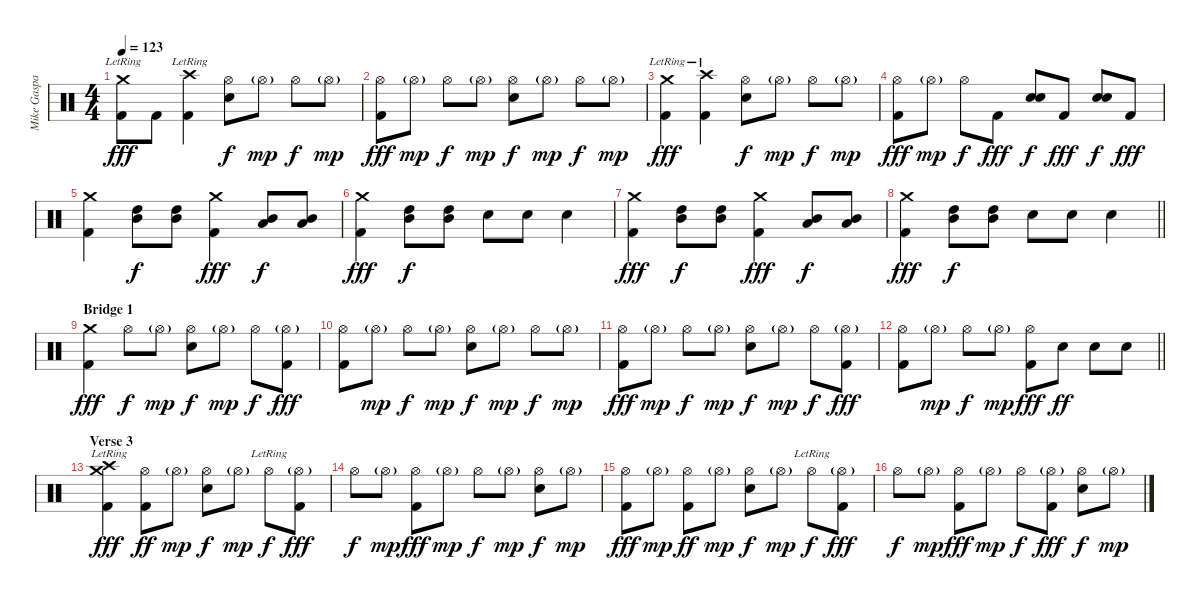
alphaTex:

\track ("Mike Gaspar (Drums)" "Mike Gaspa") {instrument percussion}
\staff {score}
\articulation defaults
\ts (4 4)
\tempo 123
\clef neutral
\ks c
("Crash medium (hit)"{lr} "Kick (hit) 2").8{dy fff} "Kick (hit) 2".8 ("Crash high (hit)"{lr} "Kick (hit) 2").4 ("Hi-Hat (open)" "Snare (hit) 2").8{dy f} "Hi-Hat (open)"{g}.8{dy mp} "Hi-Hat (open)".8{dy f} "Hi-Hat (open)"{g}.8{dy mp} |
("Hi-Hat (open)" "Kick (hit) 2").8{dy fff} "Hi-Hat (open)"{g}.8{dy mp} "Hi-Hat (open)".8{dy f} "Hi-Hat (open)"{g}.8{dy mp} ("Hi-Hat (open)" "Snare (hit) 2").8{dy f} "Hi-Hat (open)"{g}.8{dy mp} "Hi-Hat (open)".8{dy f} "Hi-Hat (open)"{g}.8{dy mp} |
("Crash medium (hit)"{lr} "Kick (hit) 2").4{dy fff} ("Crash high (hit)"{lr} "Kick (hit) 2").4 ("Hi-Hat (open)" "Snare (hit) 2").8{dy f} "Hi-Hat (open)"{g}.8{dy mp} "Hi-Hat (open)".8{dy f} "Hi-Hat (open)"{g}.8{dy mp} |
("Hi-Hat (open)" "Kick (hit) 2").8{dy fff} "Hi-Hat (open)"{g}.8{dy mp} "Hi-Hat (open)".8{dy f} "Kick (hit) 2".8{dy fff} ("Snare (hit) 2" "Snare (hit) 2").8{bd 30 dy f} "Kick (hit) 2".8{dy fff} ("Snare (hit) 2" "Snare (hit) 2").8{bd 30 dy f} "Kick (hit) 2".8{dy fff} |
("Crash medium (hit)" "Kick (hit) 2").4 ("High Tom (hit)" "Mid Tom (hit)").8{dy f} ("High Tom (hit)" "Mid Tom (hit)").8 ("Crash medium (hit)" "Kick (hit) 2").4{dy fff} ("Mid Tom (hit)" "Low Tom (hit)").8{dy f} ("Mid Tom (hit)" "Low Tom (hit)").8 |
("Crash medium (hit)" "Kick (hit) 2").4{dy fff} ("High Tom (hit)" "Mid Tom (hit)").8{dy f} ("High Tom (hit)" "Mid Tom (hit)").8 "Snare (hit) 2".8 "Snare (hit) 2".8 "Snare (hit) 2".4 |
("Crash medium (hit)" "Kick (hit) 2").4{dy fff} ("High Tom (hit)" "Mid Tom (hit)").8{dy f} ("High Tom (hit)" "Mid Tom (hit)").8 ("Crash medium (hit)" "Kick (hit) 2").4{dy fff} ("Mid Tom (hit)" "Low Tom (hit)").8{dy f} ("Mid Tom (hit)" "Low Tom (hit)").8 |
\barLineRight lightlight
("Crash medium (hit)" "Kick (hit) 2").4{dy fff} ("High Tom (hit)" "Mid Tom (hit)").8{dy f} ("High Tom (hit)" "Mid Tom (hit)").8 "Snare (hit) 2".8 "Snare (hit) 2".8 "Snare (hit) 2".4 |
\section ("" "Bridge 1")
("Crash medium (hit)" "Kick (hit) 2").4{dy fff} "Hi-Hat (open)".8{dy f} "Hi-Hat (open)"{g}.8{dy mp} ("Hi-Hat (open)" "Snare (hit) 2").8{dy f} "Hi-Hat (open)"{g}.8{dy mp} "Hi-Hat (open)".8{dy f} ("Hi-Hat (open)"{g} "Kick (hit) 2").8{dy fff} |
("Hi-Hat (open)" "Kick (hit) 2").8 "Hi-Hat (open)"{g}.8{dy mp} "Hi-Hat (open)".8{dy f} "Hi-Hat (open)"{g}.8{dy mp} ("Hi-Hat (open)" "Snare (hit) 2").8{dy f} "Hi-Hat (open)"{g}.8{dy mp} "Hi-Hat (open)".8{dy f} "Hi-Hat (open)"{g}.8{dy mp} |
("Hi-Hat (open)" "Kick (hit) 2").8{dy fff} "Hi-Hat (open)"{g}.8{dy mp} "Hi-Hat (open)".8{dy f} "Hi-Hat (open)"{g}.8{dy mp} ("Hi-Hat (open)" "Snare (hit) 2").8{dy f} "Hi-Hat (open)"{g}.8{dy mp} "Hi-Hat (open)".8{dy f} ("Hi-Hat (open)"{g} "Kick (hit) 2").8{dy fff} |
\barLineRight lightlight
("Hi-Hat (open)" "Kick (hit) 2").8 "Hi-Hat (open)"{g}.8{dy mp} "Hi-Hat (open)".8{dy f} "Hi-Hat (open)"{g}.8{dy mp} ("Hi-Hat (open)" "Kick (hit) 2").8{dy fff} "Snare (hit) 2".8{dy ff} "Snare (hit) 2".8 "Snare (hit) 2".8 |
\section ("" "Verse 3")
("Crash medium (hit)"{lr} "Crash high (hit)"{lr} "Kick (hit) 2").4{dy fff} ("Hi-Hat (open)" "Kick (hit) 2").8{dy ff} "Hi-Hat (open)"{g}.8{dy mp} ("Hi-Hat (open)" "Snare (hit) 2").8{dy f} "Hi-Hat (open)"{g}.8{dy mp} "Hi-Hat (open)"{lr}.8{dy f} ("Hi-Hat (open)"{g} "Kick (hit) 2").8{dy fff} |
"Hi-Hat (open)".8{dy f} "Hi-Hat (open)"{g}.8{dy mp} ("Hi-Hat (open)" "Kick (hit) 2").8{dy fff} "Hi-Hat (open)"{g}.8{dy mp} "Hi-Hat (open)".8{dy f} "Hi-Hat (open)"{g}.8{dy mp} ("Hi-Hat (open)" "Snare (hit) 2").8{dy f} "Hi-Hat (open)"{g}.8{dy mp} |
("Hi-Hat (open)" "Kick (hit) 2").8{dy fff} "Hi-Hat (open)"{g}.8{dy mp} ("Hi-Hat (open)" "Kick (hit) 2").8{dy ff} "Hi-Hat (open)"{g}.8{dy mp} ("Hi-Hat (open)" "Snare (hit) 2").8{dy f} "Hi-Hat (open)"{g}.8{dy mp} "Hi-Hat (open)"{lr}.8{dy f} ("Hi-Hat (open)"{g} "Kick (hit) 2").8{dy fff} |
"Hi-Hat (open)".8{dy f} "Hi-Hat (open)"{g}.8{dy mp} ("Hi-Hat (open)" "Kick (hit) 2").8{dy fff} "Hi-Hat (open)"{g}.8{dy mp} "Hi-Hat (open)".8{dy f} ("Hi-Hat (open)"{g} "Kick (hit) 2").8{dy fff} ("Hi-Hat (open)" "Snare (hit) 2").8{dy f} "Hi-Hat (open)"{g}.8{dy mp}
